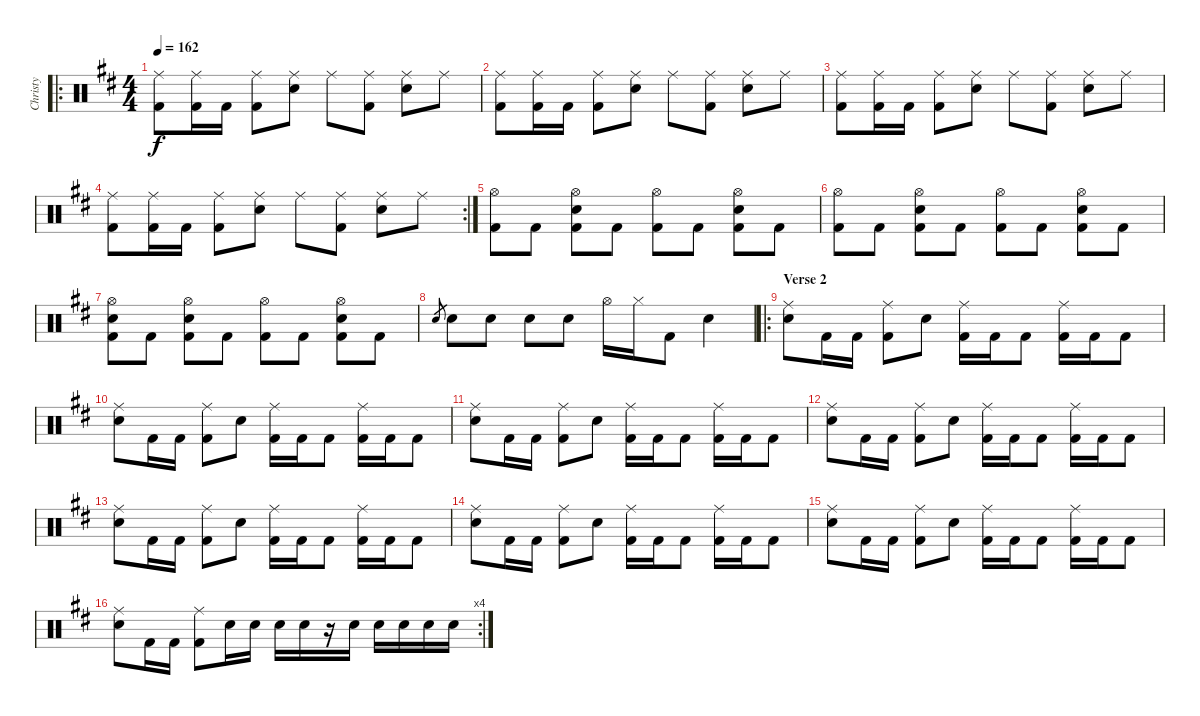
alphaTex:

\track ("Christy" "Christy") {instrument percussion}
\staff {score}
\articulation defaults
\ro
\ts (4 4)
\tempo 162
\clef neutral
\ks d
("Ride (middle)" "Kick (hit) 2").8{dy f} ("Ride (middle)" "Kick (hit) 2").16 "Kick (hit) 2".16 ("Ride (middle)" "Kick (hit) 2").8 ("Ride (middle)" "Snare (hit) 2").8 "Ride (middle)".8 ("Ride (middle)" "Kick (hit) 2").8 ("Ride (middle)" "Snare (hit) 2").8 "Ride (middle)".8 |
("Ride (middle)" "Kick (hit) 2").8 ("Ride (middle)" "Kick (hit) 2").16 "Kick (hit) 2".16 ("Ride (middle)" "Kick (hit) 2").8 ("Ride (middle)" "Snare (hit) 2").8 "Ride (middle)".8 ("Ride (middle)" "Kick (hit) 2").8 ("Ride (middle)" "Snare (hit) 2").8 "Ride (middle)".8 |
("Ride (middle)" "Kick (hit) 2").8 ("Ride (middle)" "Kick (hit) 2").16 "Kick (hit) 2".16 ("Ride (middle)" "Kick (hit) 2").8 ("Ride (middle)" "Snare (hit) 2").8 "Ride (middle)".8 ("Ride (middle)" "Kick (hit) 2").8 ("Ride (middle)" "Snare (hit) 2").8 "Ride (middle)".8 |
\rc 2
("Ride (middle)" "Kick (hit) 2").8 ("Ride (middle)" "Kick (hit) 2").16 "Kick (hit) 2".16 ("Ride (middle)" "Kick (hit) 2").8 ("Ride (middle)" "Snare (hit) 2").8 "Ride (middle)".8 ("Ride (middle)" "Kick (hit) 2").8 ("Ride (middle)" "Snare (hit) 2").8 "Ride (middle)".8 |
("Hi-Hat (open)" "Kick (hit) 2").8 "Kick (hit) 2".8 ("Hi-Hat (open)" "Snare (hit) 2" "Kick (hit) 2").8 "Kick (hit) 2".8 ("Hi-Hat (open)" "Kick (hit) 2").8 "Kick (hit) 2".8 ("Hi-Hat (open)" "Snare (hit) 2" "Kick (hit) 2").8 "Kick (hit) 2".8 |
("Hi-Hat (open)" "Kick (hit) 2").8 "Kick (hit) 2".8 ("Hi-Hat (open)" "Snare (hit) 2" "Kick (hit) 2").8 "Kick (hit) 2".8 ("Hi-Hat (open)" "Kick (hit) 2").8 "Kick (hit) 2".8 ("Hi-Hat (open)" "Snare (hit) 2" "Kick (hit) 2").8 "Kick (hit) 2".8 |
("Hi-Hat (open)" "Snare (hit) 2" "Kick (hit) 2").8 "Kick (hit) 2".8 ("Hi-Hat (open)" "Snare (hit) 2" "Kick (hit) 2").8 "Kick (hit) 2".8 ("Hi-Hat (open)" "Kick (hit) 2").8 "Kick (hit) 2".8 ("Hi-Hat (open)" "Snare (hit) 2" "Kick (hit) 2").8 "Kick (hit) 2".8 |
"Snare (hit) 2".8{gr} "Snare (hit) 2".8 "Snare (hit) 2".8 "Snare (hit) 2".8 "Snare (hit) 2".8 "Hi-Hat (open)".16 "Hi-Hat (closed)".16 "Kick (hit) 2".8 "Snare (hit) 2".4 |
\ro
\section ("" "Verse 2")
("Ride (middle)" "Snare (hit) 2").8 "Kick (hit) 2".16 "Kick (hit) 2".16 ("Ride (middle)" "Kick (hit) 2").8 "Snare (hit) 2".8 ("Ride (middle)" "Kick (hit) 2").16 "Kick (hit) 2".16 "Kick (hit) 2".8 ("Ride (middle)" "Kick (hit) 2").16 "Kick (hit) 2".16 "Kick (hit) 2".8 |
("Ride (middle)" "Snare (hit) 2").8 "Kick (hit) 2".16 "Kick (hit) 2".16 ("Ride (middle)" "Kick (hit) 2").8 "Snare (hit) 2".8 ("Ride (middle)" "Kick (hit) 2").16 "Kick (hit) 2".16 "Kick (hit) 2".8 ("Ride (middle)" "Kick (hit) 2").16 "Kick (hit) 2".16 "Kick (hit) 2".8 |
("Ride (middle)" "Snare (hit) 2").8 "Kick (hit) 2".16 "Kick (hit) 2".16 ("Ride (middle)" "Kick (hit) 2").8 "Snare (hit) 2".8 ("Ride (middle)" "Kick (hit) 2").16 "Kick (hit) 2".16 "Kick (hit) 2".8 ("Ride (middle)" "Kick (hit) 2").16 "Kick (hit) 2".16 "Kick (hit) 2".8 |
("Ride (middle)" "Snare (hit) 2").8 "Kick (hit) 2".16 "Kick (hit) 2".16 ("Ride (middle)" "Kick (hit) 2").8 "Snare (hit) 2".8 ("Ride (middle)" "Kick (hit) 2").16 "Kick (hit) 2".16 "Kick (hit) 2".8 ("Ride (middle)" "Kick (hit) 2").16 "Kick (hit) 2".16 "Kick (hit) 2".8 |
("Ride (middle)" "Snare (hit) 2").8 "Kick (hit) 2".16 "Kick (hit) 2".16 ("Ride (middle)" "Kick (hit) 2").8 "Snare (hit) 2".8 ("Ride (middle)" "Kick (hit) 2").16 "Kick (hit) 2".16 "Kick (hit) 2".8 ("Ride (middle)" "Kick (hit) 2").16 "Kick (hit) 2".16 "Kick (hit) 2".8 |
("Ride (middle)" "Snare (hit) 2").8 "Kick (hit) 2".16 "Kick (hit) 2".16 ("Ride (middle)" "Kick (hit) 2").8 "Snare (hit) 2".8 ("Ride (middle)" "Kick (hit) 2").16 "Kick (hit) 2".16 "Kick (hit) 2".8 ("Ride (middle)" "Kick (hit) 2").16 "Kick (hit) 2".16 "Kick (hit) 2".8 |
("Ride (middle)" "Snare (hit) 2").8 "Kick (hit) 2".16 "Kick (hit) 2".16 ("Ride (middle)" "Kick (hit) 2").8 "Snare (hit) 2".8 ("Ride (middle)" "Kick (hit) 2").16 "Kick (hit) 2".16 "Kick (hit) 2".8 ("Ride (middle)" "Kick (hit) 2").16 "Kick (hit) 2".16 "Kick (hit) 2".8 |
\rc 4
("Ride (middle)" "Snare (hit) 2").8 "Kick (hit) 2".16 "Kick (hit) 2".16 ("Ride (middle)" "Kick (hit) 2").8 "Snare (hit) 2".16 "Snare (hit) 2".16 "Snare (hit) 2".16 "Snare (hit) 2".16 r.16 "Snare (hit) 2".16 "Snare (hit) 2".16 "Snare (hit) 2".16 "Snare (hit) 2".16 "Snare (hit) 2".16
